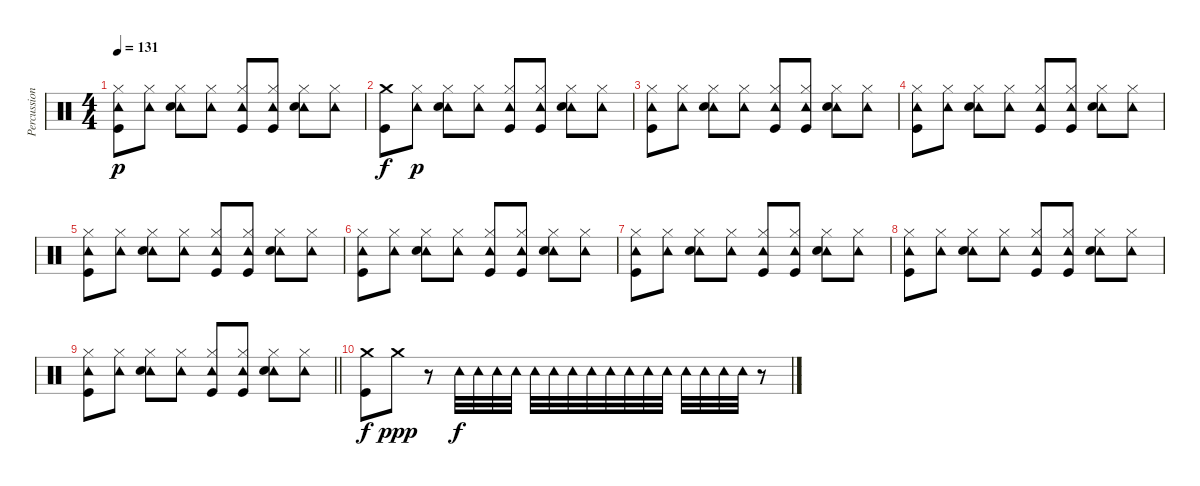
\track ("Percussion" "Percussion") {instrument percussion}
\staff {score}
\articulation defaults
\ts (4 4)
\tempo 131
\clef neutral
\ks c
("Tambourine (hit)" "Hi-Hat (closed)" "Kick (hit)").8{dy p} ("Tambourine (hit)" "Hi-Hat (closed)").8 ("Tambourine (hit)" "Hi-Hat (closed)" "Snare (hit) 2").8 ("Tambourine (hit)" "Hi-Hat (closed)").8 ("Tambourine (hit)" "Hi-Hat (closed)" "Kick (hit)").8 ("Tambourine (hit)" "Hi-Hat (closed)" "Kick (hit)").8 ("Tambourine (hit)" "Hi-Hat (closed)" "Snare (hit) 2").8 ("Tambourine (hit)" "Hi-Hat (closed)").8 |
("Crash medium (hit)" "Kick (hit)").8{dy f} ("Tambourine (hit)" "Hi-Hat (closed)").8{dy p} ("Tambourine (hit)" "Hi-Hat (closed)" "Snare (hit) 2").8 ("Tambourine (hit)" "Hi-Hat (closed)").8 ("Tambourine (hit)" "Hi-Hat (closed)" "Kick (hit)").8 ("Tambourine (hit)" "Hi-Hat (closed)" "Kick (hit)").8 ("Tambourine (hit)" "Hi-Hat (closed)" "Snare (hit) 2").8 ("Tambourine (hit)" "Hi-Hat (closed)").8 |
("Tambourine (hit)" "Hi-Hat (closed)" "Kick (hit)").8 ("Tambourine (hit)" "Hi-Hat (closed)").8 ("Tambourine (hit)" "Hi-Hat (closed)" "Snare (hit) 2").8 ("Tambourine (hit)" "Hi-Hat (closed)").8 ("Tambourine (hit)" "Hi-Hat (closed)" "Kick (hit)").8 ("Tambourine (hit)" "Hi-Hat (closed)" "Kick (hit)").8 ("Tambourine (hit)" "Hi-Hat (closed)" "Snare (hit) 2").8 ("Tambourine (hit)" "Hi-Hat (closed)").8 |
("Tambourine (hit)" "Hi-Hat (closed)" "Kick (hit)").8 ("Tambourine (hit)" "Hi-Hat (closed)").8 ("Tambourine (hit)" "Hi-Hat (closed)" "Snare (hit) 2").8 ("Tambourine (hit)" "Hi-Hat (closed)").8 ("Tambourine (hit)" "Hi-Hat (closed)" "Kick (hit)").8 ("Tambourine (hit)" "Hi-Hat (closed)" "Kick (hit)").8 ("Tambourine (hit)" "Hi-Hat (closed)" "Snare (hit) 2").8 ("Tambourine (hit)" "Hi-Hat (closed)").8 |
("Tambourine (hit)" "Hi-Hat (closed)" "Kick (hit)").8 ("Tambourine (hit)" "Hi-Hat (closed)").8 ("Tambourine (hit)" "Hi-Hat (closed)" "Snare (hit) 2").8 ("Tambourine (hit)" "Hi-Hat (closed)").8 ("Tambourine (hit)" "Hi-Hat (closed)" "Kick (hit)").8 ("Tambourine (hit)" "Hi-Hat (closed)" "Kick (hit)").8 ("Tambourine (hit)" "Hi-Hat (closed)" "Snare (hit) 2").8 ("Tambourine (hit)" "Hi-Hat (closed)").8 |
("Tambourine (hit)" "Hi-Hat (closed)" "Kick (hit)").8 ("Tambourine (hit)" "Hi-Hat (closed)").8 ("Tambourine (hit)" "Hi-Hat (closed)" "Snare (hit) 2").8 ("Tambourine (hit)" "Hi-Hat (closed)").8 ("Tambourine (hit)" "Hi-Hat (closed)" "Kick (hit)").8 ("Tambourine (hit)" "Hi-Hat (closed)" "Kick (hit)").8 ("Tambourine (hit)" "Hi-Hat (closed)" "Snare (hit) 2").8 ("Tambourine (hit)" "Hi-Hat (closed)").8 |
("Tambourine (hit)" "Hi-Hat (closed)" "Kick (hit)").8 ("Tambourine (hit)" "Hi-Hat (closed)").8 ("Tambourine (hit)" "Hi-Hat (closed)" "Snare (hit) 2").8 ("Tambourine (hit)" "Hi-Hat (closed)").8 ("Tambourine (hit)" "Hi-Hat (closed)" "Kick (hit)").8 ("Tambourine (hit)" "Hi-Hat (closed)" "Kick (hit)").8 ("Tambourine (hit)" "Hi-Hat (closed)" "Snare (hit) 2").8 ("Tambourine (hit)" "Hi-Hat (closed)").8 |
("Tambourine (hit)" "Hi-Hat (closed)" "Kick (hit)").8 ("Tambourine (hit)" "Hi-Hat (closed)").8 ("Tambourine (hit)" "Hi-Hat (closed)" "Snare (hit) 2").8 ("Tambourine (hit)" "Hi-Hat (closed)").8 ("Tambourine (hit)" "Hi-Hat (closed)" "Kick (hit)").8 ("Tambourine (hit)" "Hi-Hat (closed)" "Kick (hit)").8 ("Tambourine (hit)" "Hi-Hat (closed)" "Snare (hit) 2").8 ("Tambourine (hit)" "Hi-Hat (closed)").8 |
\barLineRight lightlight
("Tambourine (hit)" "Hi-Hat (closed)" "Kick (hit)").8 ("Tambourine (hit)" "Hi-Hat (closed)").8 ("Tambourine (hit)" "Hi-Hat (closed)" "Snare (hit) 2").8 ("Tambourine (hit)" "Hi-Hat (closed)").8 ("Tambourine (hit)" "Hi-Hat (closed)" "Kick (hit)").8 ("Tambourine (hit)" "Hi-Hat (closed)" "Kick (hit)").8 ("Tambourine (hit)" "Hi-Hat (closed)" "Snare (hit) 2").8 ("Tambourine (hit)" "Hi-Hat (closed)").8 |
("Crash medium (hit)" "Kick (hit)").8{dy f} "Crash medium (hit)".8{dy ppp} r.8 "Tambourine (hit)".32{dy f} "Tambourine (hit)".32 "Tambourine (hit)".32 "Tambourine (hit)".32 "Tambourine (hit)".32 "Tambourine (hit)".32 "Tambourine (hit)".32 "Tambourine (hit)".32 "Tambourine (hit)".32 "Tambourine (hit)".32 "Tambourine (hit)".32 "Tambourine (hit)".32 "Tambourine (hit)".32 "Tambourine (hit)".32 "Tambourine (hit)".32 "Tambourine (hit)".32 r.8
